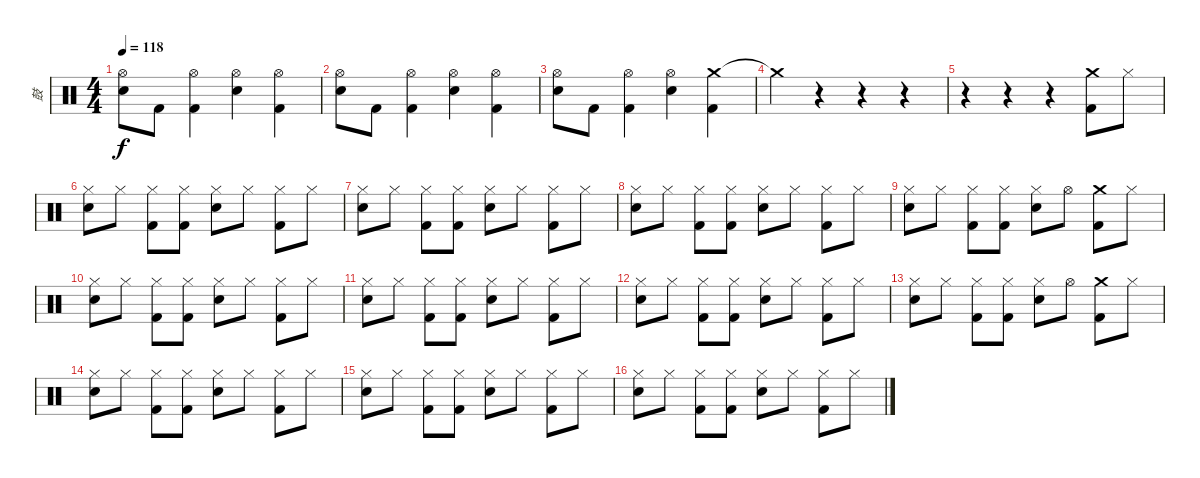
\track ("鼓" "鼓") {instrument percussion}
\staff {score}
\articulation defaults
\ts (4 4)
\tempo 118
\clef neutral
\ks c
("Hi-Hat (open)" "Electric Snare (hit)").8{dy f} "Kick (hit) 2".8 ("Hi-Hat (open)" "Kick (hit) 2").4 ("Hi-Hat (open)" "Electric Snare (hit)").4 ("Hi-Hat (open)" "Kick (hit) 2").4 |
("Hi-Hat (open)" "Electric Snare (hit)").8 "Kick (hit) 2".8 ("Hi-Hat (open)" "Kick (hit) 2").4 ("Hi-Hat (open)" "Electric Snare (hit)").4 ("Hi-Hat (open)" "Kick (hit) 2").4 |
("Hi-Hat (open)" "Electric Snare (hit)").8 "Kick (hit) 2".8 ("Hi-Hat (open)" "Kick (hit) 2").4 ("Hi-Hat (open)" "Electric Snare (hit)").4 ("Crash medium (hit)" "Kick (hit) 2").4 |
"Crash medium (hit)"{t}.4 r.4 r.4 r.4 |
r.4 r.4 r.4 ("Crash medium (hit)" "Kick (hit) 2").8 "Hi-Hat (closed)".8 |
("Hi-Hat (closed)" "Electric Snare (hit)").8 "Hi-Hat (closed)".8 ("Hi-Hat (closed)" "Kick (hit) 2").8 ("Hi-Hat (closed)" "Kick (hit) 2").8 ("Hi-Hat (closed)" "Electric Snare (hit)").8 "Hi-Hat (closed)".8 ("Hi-Hat (closed)" "Kick (hit) 2").8 "Hi-Hat (closed)".8 |
("Hi-Hat (closed)" "Electric Snare (hit)").8 "Hi-Hat (closed)".8 ("Hi-Hat (closed)" "Kick (hit) 2").8 ("Hi-Hat (closed)" "Kick (hit) 2").8 ("Hi-Hat (closed)" "Electric Snare (hit)").8 "Hi-Hat (closed)".8 ("Hi-Hat (closed)" "Kick (hit) 2").8 "Hi-Hat (closed)".8 |
("Hi-Hat (closed)" "Electric Snare (hit)").8 "Hi-Hat (closed)".8 ("Hi-Hat (closed)" "Kick (hit) 2").8 ("Hi-Hat (closed)" "Kick (hit) 2").8 ("Hi-Hat (closed)" "Electric Snare (hit)").8 "Hi-Hat (closed)".8 ("Hi-Hat (closed)" "Kick (hit) 2").8 "Hi-Hat (closed)".8 |
("Hi-Hat (closed)" "Electric Snare (hit)").8 "Hi-Hat (closed)".8 ("Hi-Hat (closed)" "Kick (hit) 2").8 ("Hi-Hat (closed)" "Kick (hit) 2").8 ("Hi-Hat (closed)" "Electric Snare (hit)").8 "Hi-Hat (open)".8 ("Crash medium (hit)" "Kick (hit) 2").8 "Hi-Hat (closed)".8 |
("Hi-Hat (closed)" "Electric Snare (hit)").8 "Hi-Hat (closed)".8 ("Hi-Hat (closed)" "Kick (hit) 2").8 ("Hi-Hat (closed)" "Kick (hit) 2").8 ("Hi-Hat (closed)" "Electric Snare (hit)").8 "Hi-Hat (closed)".8 ("Hi-Hat (closed)" "Kick (hit) 2").8 "Hi-Hat (closed)".8 |
("Hi-Hat (closed)" "Electric Snare (hit)").8 "Hi-Hat (closed)".8 ("Hi-Hat (closed)" "Kick (hit) 2").8 ("Hi-Hat (closed)" "Kick (hit) 2").8 ("Hi-Hat (closed)" "Electric Snare (hit)").8 "Hi-Hat (closed)".8 ("Hi-Hat (closed)" "Kick (hit) 2").8 "Hi-Hat (closed)".8 |
("Hi-Hat (closed)" "Electric Snare (hit)").8 "Hi-Hat (closed)".8 ("Hi-Hat (closed)" "Kick (hit) 2").8 ("Hi-Hat (closed)" "Kick (hit) 2").8 ("Hi-Hat (closed)" "Electric Snare (hit)").8 "Hi-Hat (closed)".8 ("Hi-Hat (closed)" "Kick (hit) 2").8 "Hi-Hat (closed)".8 |
("Hi-Hat (closed)" "Electric Snare (hit)").8 "Hi-Hat (closed)".8 ("Hi-Hat (closed)" "Kick (hit) 2").8 ("Hi-Hat (closed)" "Kick (hit) 2").8 ("Hi-Hat (closed)" "Electric Snare (hit)").8 "Hi-Hat (open)".8 ("Crash medium (hit)" "Kick (hit) 2").8 "Hi-Hat (closed)".8 |
("Hi-Hat (closed)" "Electric Snare (hit)").8 "Hi-Hat (closed)".8 ("Hi-Hat (closed)" "Kick (hit) 2").8 ("Hi-Hat (closed)" "Kick (hit) 2").8 ("Hi-Hat (closed)" "Electric Snare (hit)").8 "Hi-Hat (closed)".8 ("Hi-Hat (closed)" "Kick (hit) 2").8 "Hi-Hat (closed)".8 |
("Hi-Hat (closed)" "Electric Snare (hit)").8 "Hi-Hat (closed)".8 ("Hi-Hat (closed)" "Kick (hit) 2").8 ("Hi-Hat (closed)" "Kick (hit) 2").8 ("Hi-Hat (closed)" "Electric Snare (hit)").8 "Hi-Hat (closed)".8 ("Hi-Hat (closed)" "Kick (hit) 2").8 "Hi-Hat (closed)".8 |
("Hi-Hat (closed)" "Electric Snare (hit)").8 "Hi-Hat (closed)".8 ("Hi-Hat (closed)" "Kick (hit) 2").8 ("Hi-Hat (closed)" "Kick (hit) 2").8 ("Hi-Hat (closed)" "Electric Snare (hit)").8 "Hi-Hat (closed)".8 ("Hi-Hat (closed)" "Kick (hit) 2").8 "Hi-Hat (closed)".8
